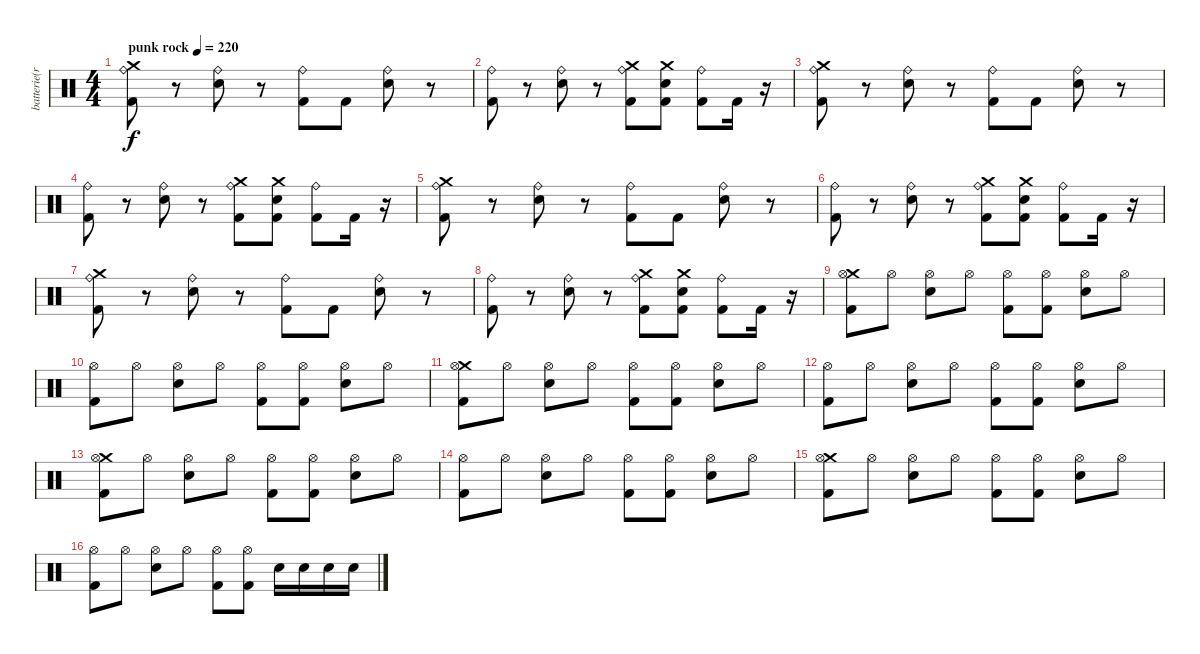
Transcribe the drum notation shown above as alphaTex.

\track ("batterie(richie)" "batterie(r") {instrument percussion}
\staff {score}
\articulation defaults
\ts (4 4)
\tempo (220 "punk rock")
\clef neutral
\ks c
("Crash medium (hit)" "Ride (bell)" "Kick (hit) 2").8{dy f} r.8 ("Ride (bell)" "Electric Snare (hit)").8 r.8 ("Ride (bell)" "Kick (hit) 2").8 "Kick (hit) 2".8 ("Ride (bell)" "Electric Snare (hit)").8 r.8 |
("Ride (bell)" "Kick (hit) 2").8 r.8 ("Ride (bell)" "Electric Snare (hit)").8 r.8 ("Crash medium (hit)" "Ride (bell)" "Kick (hit) 2").8 ("Electric Snare (hit)" "Crash medium (hit)" "Kick (hit) 2").8 ("Kick (hit) 2" "Ride (bell)").8 "Kick (hit) 2".16 r.16 |
("Crash medium (hit)" "Ride (bell)" "Kick (hit) 2").8 r.8 ("Ride (bell)" "Electric Snare (hit)").8 r.8 ("Ride (bell)" "Kick (hit) 2").8 "Kick (hit) 2".8 ("Ride (bell)" "Electric Snare (hit)").8 r.8 |
("Ride (bell)" "Kick (hit) 2").8 r.8 ("Ride (bell)" "Electric Snare (hit)").8 r.8 ("Crash medium (hit)" "Ride (bell)" "Kick (hit) 2").8 ("Electric Snare (hit)" "Crash medium (hit)" "Kick (hit) 2").8 ("Kick (hit) 2" "Ride (bell)").8 "Kick (hit) 2".16 r.16 |
("Crash medium (hit)" "Ride (bell)" "Kick (hit) 2").8 r.8 ("Ride (bell)" "Electric Snare (hit)").8 r.8 ("Ride (bell)" "Kick (hit) 2").8 "Kick (hit) 2".8 ("Ride (bell)" "Electric Snare (hit)").8 r.8 |
("Ride (bell)" "Kick (hit) 2").8 r.8 ("Ride (bell)" "Electric Snare (hit)").8 r.8 ("Crash medium (hit)" "Ride (bell)" "Kick (hit) 2").8 ("Electric Snare (hit)" "Crash medium (hit)" "Kick (hit) 2").8 ("Kick (hit) 2" "Ride (bell)").8 "Kick (hit) 2".16 r.16 |
("Crash medium (hit)" "Ride (bell)" "Kick (hit) 2").8 r.8 ("Ride (bell)" "Electric Snare (hit)").8 r.8 ("Ride (bell)" "Kick (hit) 2").8 "Kick (hit) 2".8 ("Ride (bell)" "Electric Snare (hit)").8 r.8 |
("Ride (bell)" "Kick (hit) 2").8 r.8 ("Ride (bell)" "Electric Snare (hit)").8 r.8 ("Crash medium (hit)" "Ride (bell)" "Kick (hit) 2").8 ("Electric Snare (hit)" "Crash medium (hit)" "Kick (hit) 2").8 ("Kick (hit) 2" "Ride (bell)").8 "Kick (hit) 2".16 r.16 |
("Kick (hit) 2" "Crash medium (hit)" "Hi-Hat (open)").8 "Hi-Hat (open)".8 ("Electric Snare (hit)" "Hi-Hat (open)").8 "Hi-Hat (open)".8 ("Hi-Hat (open)" "Kick (hit) 2").8 ("Hi-Hat (open)" "Kick (hit) 2").8 ("Electric Snare (hit)" "Hi-Hat (open)").8 "Hi-Hat (open)".8 |
("Kick (hit) 2" "Hi-Hat (open)").8 "Hi-Hat (open)".8 ("Electric Snare (hit)" "Hi-Hat (open)").8 "Hi-Hat (open)".8 ("Hi-Hat (open)" "Kick (hit) 2").8 ("Hi-Hat (open)" "Kick (hit) 2").8 ("Electric Snare (hit)" "Hi-Hat (open)").8 "Hi-Hat (open)".8 |
("Kick (hit) 2" "Crash medium (hit)" "Hi-Hat (open)").8 "Hi-Hat (open)".8 ("Electric Snare (hit)" "Hi-Hat (open)").8 "Hi-Hat (open)".8 ("Hi-Hat (open)" "Kick (hit) 2").8 ("Hi-Hat (open)" "Kick (hit) 2").8 ("Electric Snare (hit)" "Hi-Hat (open)").8 "Hi-Hat (open)".8 |
("Kick (hit) 2" "Hi-Hat (open)").8 "Hi-Hat (open)".8 ("Electric Snare (hit)" "Hi-Hat (open)").8 "Hi-Hat (open)".8 ("Hi-Hat (open)" "Kick (hit) 2").8 ("Hi-Hat (open)" "Kick (hit) 2").8 ("Electric Snare (hit)" "Hi-Hat (open)").8 "Hi-Hat (open)".8 |
("Kick (hit) 2" "Crash medium (hit)" "Hi-Hat (open)").8 "Hi-Hat (open)".8 ("Electric Snare (hit)" "Hi-Hat (open)").8 "Hi-Hat (open)".8 ("Hi-Hat (open)" "Kick (hit) 2").8 ("Hi-Hat (open)" "Kick (hit) 2").8 ("Electric Snare (hit)" "Hi-Hat (open)").8 "Hi-Hat (open)".8 |
("Kick (hit) 2" "Hi-Hat (open)").8 "Hi-Hat (open)".8 ("Electric Snare (hit)" "Hi-Hat (open)").8 "Hi-Hat (open)".8 ("Hi-Hat (open)" "Kick (hit) 2").8 ("Hi-Hat (open)" "Kick (hit) 2").8 ("Electric Snare (hit)" "Hi-Hat (open)").8 "Hi-Hat (open)".8 |
("Kick (hit) 2" "Crash medium (hit)" "Hi-Hat (open)").8 "Hi-Hat (open)".8 ("Electric Snare (hit)" "Hi-Hat (open)").8 "Hi-Hat (open)".8 ("Hi-Hat (open)" "Kick (hit) 2").8 ("Hi-Hat (open)" "Kick (hit) 2").8 ("Electric Snare (hit)" "Hi-Hat (open)").8 "Hi-Hat (open)".8 |
("Kick (hit) 2" "Hi-Hat (open)").8 "Hi-Hat (open)".8 ("Electric Snare (hit)" "Hi-Hat (open)").8 "Hi-Hat (open)".8 ("Hi-Hat (open)" "Kick (hit) 2").8 ("Hi-Hat (open)" "Kick (hit) 2").8 "Electric Snare (hit)".16 "Electric Snare (hit)".16 "Electric Snare (hit)".16 "Electric Snare (hit)".16
